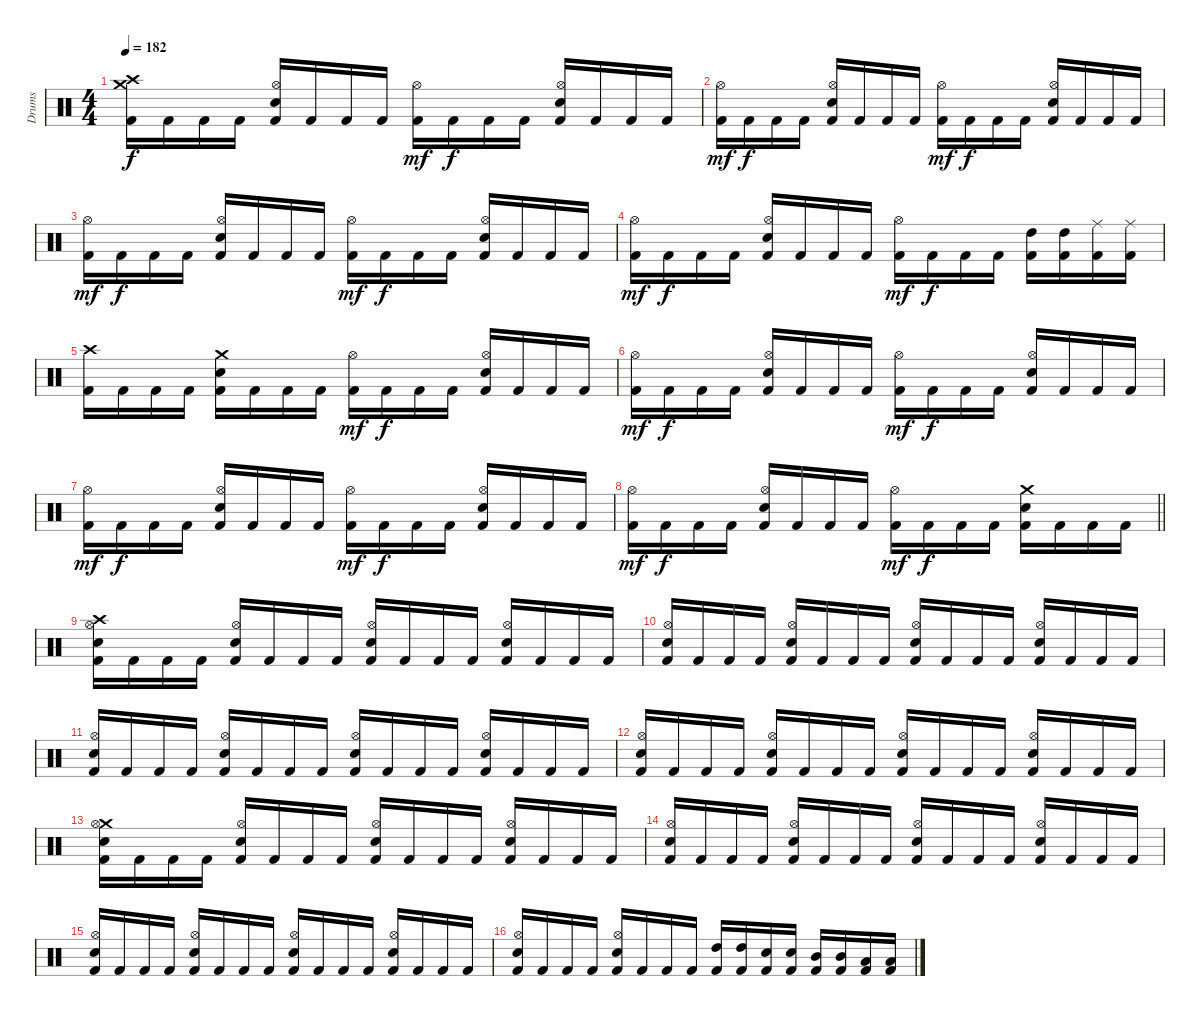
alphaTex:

\track ("Drums" "Drums") {instrument percussion}
\staff {score}
\articulation defaults
\ts (4 4)
\tempo 182
\clef neutral
\ks c
("Crash high (hit)" "Crash medium (hit)" "Kick (hit) 2").16{dy f} "Kick (hit) 2".16 "Kick (hit) 2".16 "Kick (hit) 2".16 ("Hi-Hat (open)" "Electric Snare (hit)" "Kick (hit) 2").16 "Kick (hit) 2".16 "Kick (hit) 2".16 "Kick (hit) 2".16 ("Hi-Hat (open)" "Kick (hit) 2").16{dy mf} "Kick (hit) 2".16{dy f} "Kick (hit) 2".16 "Kick (hit) 2".16 ("Hi-Hat (open)" "Electric Snare (hit)" "Kick (hit) 2").16 "Kick (hit) 2".16 "Kick (hit) 2".16 "Kick (hit) 2".16 |
("Hi-Hat (open)" "Kick (hit) 2").16{dy mf} "Kick (hit) 2".16{dy f} "Kick (hit) 2".16 "Kick (hit) 2".16 ("Hi-Hat (open)" "Electric Snare (hit)" "Kick (hit) 2").16 "Kick (hit) 2".16 "Kick (hit) 2".16 "Kick (hit) 2".16 ("Hi-Hat (open)" "Kick (hit) 2").16{dy mf} "Kick (hit) 2".16{dy f} "Kick (hit) 2".16 "Kick (hit) 2".16 ("Hi-Hat (open)" "Electric Snare (hit)" "Kick (hit) 2").16 "Kick (hit) 2".16 "Kick (hit) 2".16 "Kick (hit) 2".16 |
("Hi-Hat (open)" "Kick (hit) 2").16{dy mf} "Kick (hit) 2".16{dy f} "Kick (hit) 2".16 "Kick (hit) 2".16 ("Hi-Hat (open)" "Electric Snare (hit)" "Kick (hit) 2").16 "Kick (hit) 2".16 "Kick (hit) 2".16 "Kick (hit) 2".16 ("Hi-Hat (open)" "Kick (hit) 2").16{dy mf} "Kick (hit) 2".16{dy f} "Kick (hit) 2".16 "Kick (hit) 2".16 ("Hi-Hat (open)" "Electric Snare (hit)" "Kick (hit) 2").16 "Kick (hit) 2".16 "Kick (hit) 2".16 "Kick (hit) 2".16 |
("Hi-Hat (open)" "Kick (hit) 2").16{dy mf} "Kick (hit) 2".16{dy f} "Kick (hit) 2".16 "Kick (hit) 2".16 ("Hi-Hat (open)" "Electric Snare (hit)" "Kick (hit) 2").16 "Kick (hit) 2".16 "Kick (hit) 2".16 "Kick (hit) 2".16 ("Hi-Hat (open)" "Kick (hit) 2").16{dy mf} "Kick (hit) 2".16{dy f} "Kick (hit) 2".16 "Kick (hit) 2".16 ("High Tom (hit)" "Kick (hit) 2").16 ("High Tom (hit)" "Kick (hit) 2").16 ("Ride (middle)" "Kick (hit) 2").16 ("Ride (middle)" "Kick (hit) 2").16 |
("Crash high (hit)" "Kick (hit) 2").16 "Kick (hit) 2".16 "Kick (hit) 2".16 "Kick (hit) 2".16 ("Crash medium (hit)" "Electric Snare (hit)" "Kick (hit) 2").16 "Kick (hit) 2".16 "Kick (hit) 2".16 "Kick (hit) 2".16 ("Hi-Hat (open)" "Kick (hit) 2").16{dy mf} "Kick (hit) 2".16{dy f} "Kick (hit) 2".16 "Kick (hit) 2".16 ("Hi-Hat (open)" "Electric Snare (hit)" "Kick (hit) 2").16 "Kick (hit) 2".16 "Kick (hit) 2".16 "Kick (hit) 2".16 |
("Hi-Hat (open)" "Kick (hit) 2").16{dy mf} "Kick (hit) 2".16{dy f} "Kick (hit) 2".16 "Kick (hit) 2".16 ("Hi-Hat (open)" "Electric Snare (hit)" "Kick (hit) 2").16 "Kick (hit) 2".16 "Kick (hit) 2".16 "Kick (hit) 2".16 ("Hi-Hat (open)" "Kick (hit) 2").16{dy mf} "Kick (hit) 2".16{dy f} "Kick (hit) 2".16 "Kick (hit) 2".16 ("Hi-Hat (open)" "Electric Snare (hit)" "Kick (hit) 2").16 "Kick (hit) 2".16 "Kick (hit) 2".16 "Kick (hit) 2".16 |
("Hi-Hat (open)" "Kick (hit) 2").16{dy mf} "Kick (hit) 2".16{dy f} "Kick (hit) 2".16 "Kick (hit) 2".16 ("Hi-Hat (open)" "Electric Snare (hit)" "Kick (hit) 2").16 "Kick (hit) 2".16 "Kick (hit) 2".16 "Kick (hit) 2".16 ("Hi-Hat (open)" "Kick (hit) 2").16{dy mf} "Kick (hit) 2".16{dy f} "Kick (hit) 2".16 "Kick (hit) 2".16 ("Hi-Hat (open)" "Electric Snare (hit)" "Kick (hit) 2").16 "Kick (hit) 2".16 "Kick (hit) 2".16 "Kick (hit) 2".16 |
\barLineRight lightlight
("Hi-Hat (open)" "Kick (hit) 2").16{dy mf} "Kick (hit) 2".16{dy f} "Kick (hit) 2".16 "Kick (hit) 2".16 ("Hi-Hat (open)" "Electric Snare (hit)" "Kick (hit) 2").16 "Kick (hit) 2".16 "Kick (hit) 2".16 "Kick (hit) 2".16 ("Hi-Hat (open)" "Kick (hit) 2").16{dy mf} "Kick (hit) 2".16{dy f} "Kick (hit) 2".16 "Kick (hit) 2".16 ("Crash medium (hit)" "Electric Snare (hit)" "Kick (hit) 2").16 "Kick (hit) 2".16 "Kick (hit) 2".16 "Kick (hit) 2".16 |
("Crash high (hit)" "Hi-Hat (open)" "Electric Snare (hit)" "Kick (hit) 2").16 "Kick (hit) 2".16 "Kick (hit) 2".16 "Kick (hit) 2".16 ("Hi-Hat (open)" "Electric Snare (hit)" "Kick (hit) 2").16 "Kick (hit) 2".16 "Kick (hit) 2".16 "Kick (hit) 2".16 ("Hi-Hat (open)" "Electric Snare (hit)" "Kick (hit) 2").16 "Kick (hit) 2".16 "Kick (hit) 2".16 "Kick (hit) 2".16 ("Hi-Hat (open)" "Electric Snare (hit)" "Kick (hit) 2").16 "Kick (hit) 2".16 "Kick (hit) 2".16 "Kick (hit) 2".16 |
("Hi-Hat (open)" "Electric Snare (hit)" "Kick (hit) 2").16 "Kick (hit) 2".16 "Kick (hit) 2".16 "Kick (hit) 2".16 ("Hi-Hat (open)" "Electric Snare (hit)" "Kick (hit) 2").16 "Kick (hit) 2".16 "Kick (hit) 2".16 "Kick (hit) 2".16 ("Hi-Hat (open)" "Electric Snare (hit)" "Kick (hit) 2").16 "Kick (hit) 2".16 "Kick (hit) 2".16 "Kick (hit) 2".16 ("Hi-Hat (open)" "Electric Snare (hit)" "Kick (hit) 2").16 "Kick (hit) 2".16 "Kick (hit) 2".16 "Kick (hit) 2".16 |
("Hi-Hat (open)" "Electric Snare (hit)" "Kick (hit) 2").16 "Kick (hit) 2".16 "Kick (hit) 2".16 "Kick (hit) 2".16 ("Hi-Hat (open)" "Electric Snare (hit)" "Kick (hit) 2").16 "Kick (hit) 2".16 "Kick (hit) 2".16 "Kick (hit) 2".16 ("Hi-Hat (open)" "Electric Snare (hit)" "Kick (hit) 2").16 "Kick (hit) 2".16 "Kick (hit) 2".16 "Kick (hit) 2".16 ("Hi-Hat (open)" "Electric Snare (hit)" "Kick (hit) 2").16 "Kick (hit) 2".16 "Kick (hit) 2".16 "Kick (hit) 2".16 |
("Hi-Hat (open)" "Electric Snare (hit)" "Kick (hit) 2").16 "Kick (hit) 2".16 "Kick (hit) 2".16 "Kick (hit) 2".16 ("Hi-Hat (open)" "Electric Snare (hit)" "Kick (hit) 2").16 "Kick (hit) 2".16 "Kick (hit) 2".16 "Kick (hit) 2".16 ("Hi-Hat (open)" "Electric Snare (hit)" "Kick (hit) 2").16 "Kick (hit) 2".16 "Kick (hit) 2".16 "Kick (hit) 2".16 ("Hi-Hat (open)" "Electric Snare (hit)" "Kick (hit) 2").16 "Kick (hit) 2".16 "Kick (hit) 2".16 "Kick (hit) 2".16 |
("Crash medium (hit)" "Hi-Hat (open)" "Electric Snare (hit)" "Kick (hit) 2").16 "Kick (hit) 2".16 "Kick (hit) 2".16 "Kick (hit) 2".16 ("Hi-Hat (open)" "Electric Snare (hit)" "Kick (hit) 2").16 "Kick (hit) 2".16 "Kick (hit) 2".16 "Kick (hit) 2".16 ("Hi-Hat (open)" "Electric Snare (hit)" "Kick (hit) 2").16 "Kick (hit) 2".16 "Kick (hit) 2".16 "Kick (hit) 2".16 ("Hi-Hat (open)" "Electric Snare (hit)" "Kick (hit) 2").16 "Kick (hit) 2".16 "Kick (hit) 2".16 "Kick (hit) 2".16 |
("Hi-Hat (open)" "Electric Snare (hit)" "Kick (hit) 2").16 "Kick (hit) 2".16 "Kick (hit) 2".16 "Kick (hit) 2".16 ("Hi-Hat (open)" "Electric Snare (hit)" "Kick (hit) 2").16 "Kick (hit) 2".16 "Kick (hit) 2".16 "Kick (hit) 2".16 ("Hi-Hat (open)" "Electric Snare (hit)" "Kick (hit) 2").16 "Kick (hit) 2".16 "Kick (hit) 2".16 "Kick (hit) 2".16 ("Hi-Hat (open)" "Electric Snare (hit)" "Kick (hit) 2").16 "Kick (hit) 2".16 "Kick (hit) 2".16 "Kick (hit) 2".16 |
("Hi-Hat (open)" "Electric Snare (hit)" "Kick (hit) 2").16 "Kick (hit) 2".16 "Kick (hit) 2".16 "Kick (hit) 2".16 ("Hi-Hat (open)" "Electric Snare (hit)" "Kick (hit) 2").16 "Kick (hit) 2".16 "Kick (hit) 2".16 "Kick (hit) 2".16 ("Hi-Hat (open)" "Electric Snare (hit)" "Kick (hit) 2").16 "Kick (hit) 2".16 "Kick (hit) 2".16 "Kick (hit) 2".16 ("Hi-Hat (open)" "Electric Snare (hit)" "Kick (hit) 2").16 "Kick (hit) 2".16 "Kick (hit) 2".16 "Kick (hit) 2".16 |
("Hi-Hat (open)" "Electric Snare (hit)" "Kick (hit) 2").16 "Kick (hit) 2".16 "Kick (hit) 2".16 "Kick (hit) 2".16 ("Hi-Hat (open)" "Electric Snare (hit)" "Kick (hit) 2").16 "Kick (hit) 2".16 "Kick (hit) 2".16 "Kick (hit) 2".16 ("High Tom (hit)" "Kick (hit) 2").16 ("High Tom (hit)" "Kick (hit) 2").16 ("Electric Snare (hit)" "Kick (hit) 2").16 ("Electric Snare (hit)" "Kick (hit) 2").16 ("Mid Tom (hit)" "Kick (hit) 2").16 ("Mid Tom (hit)" "Kick (hit) 2").16 ("Low Tom (hit)" "Kick (hit) 2").16 ("Low Tom (hit)" "Kick (hit) 2").16
